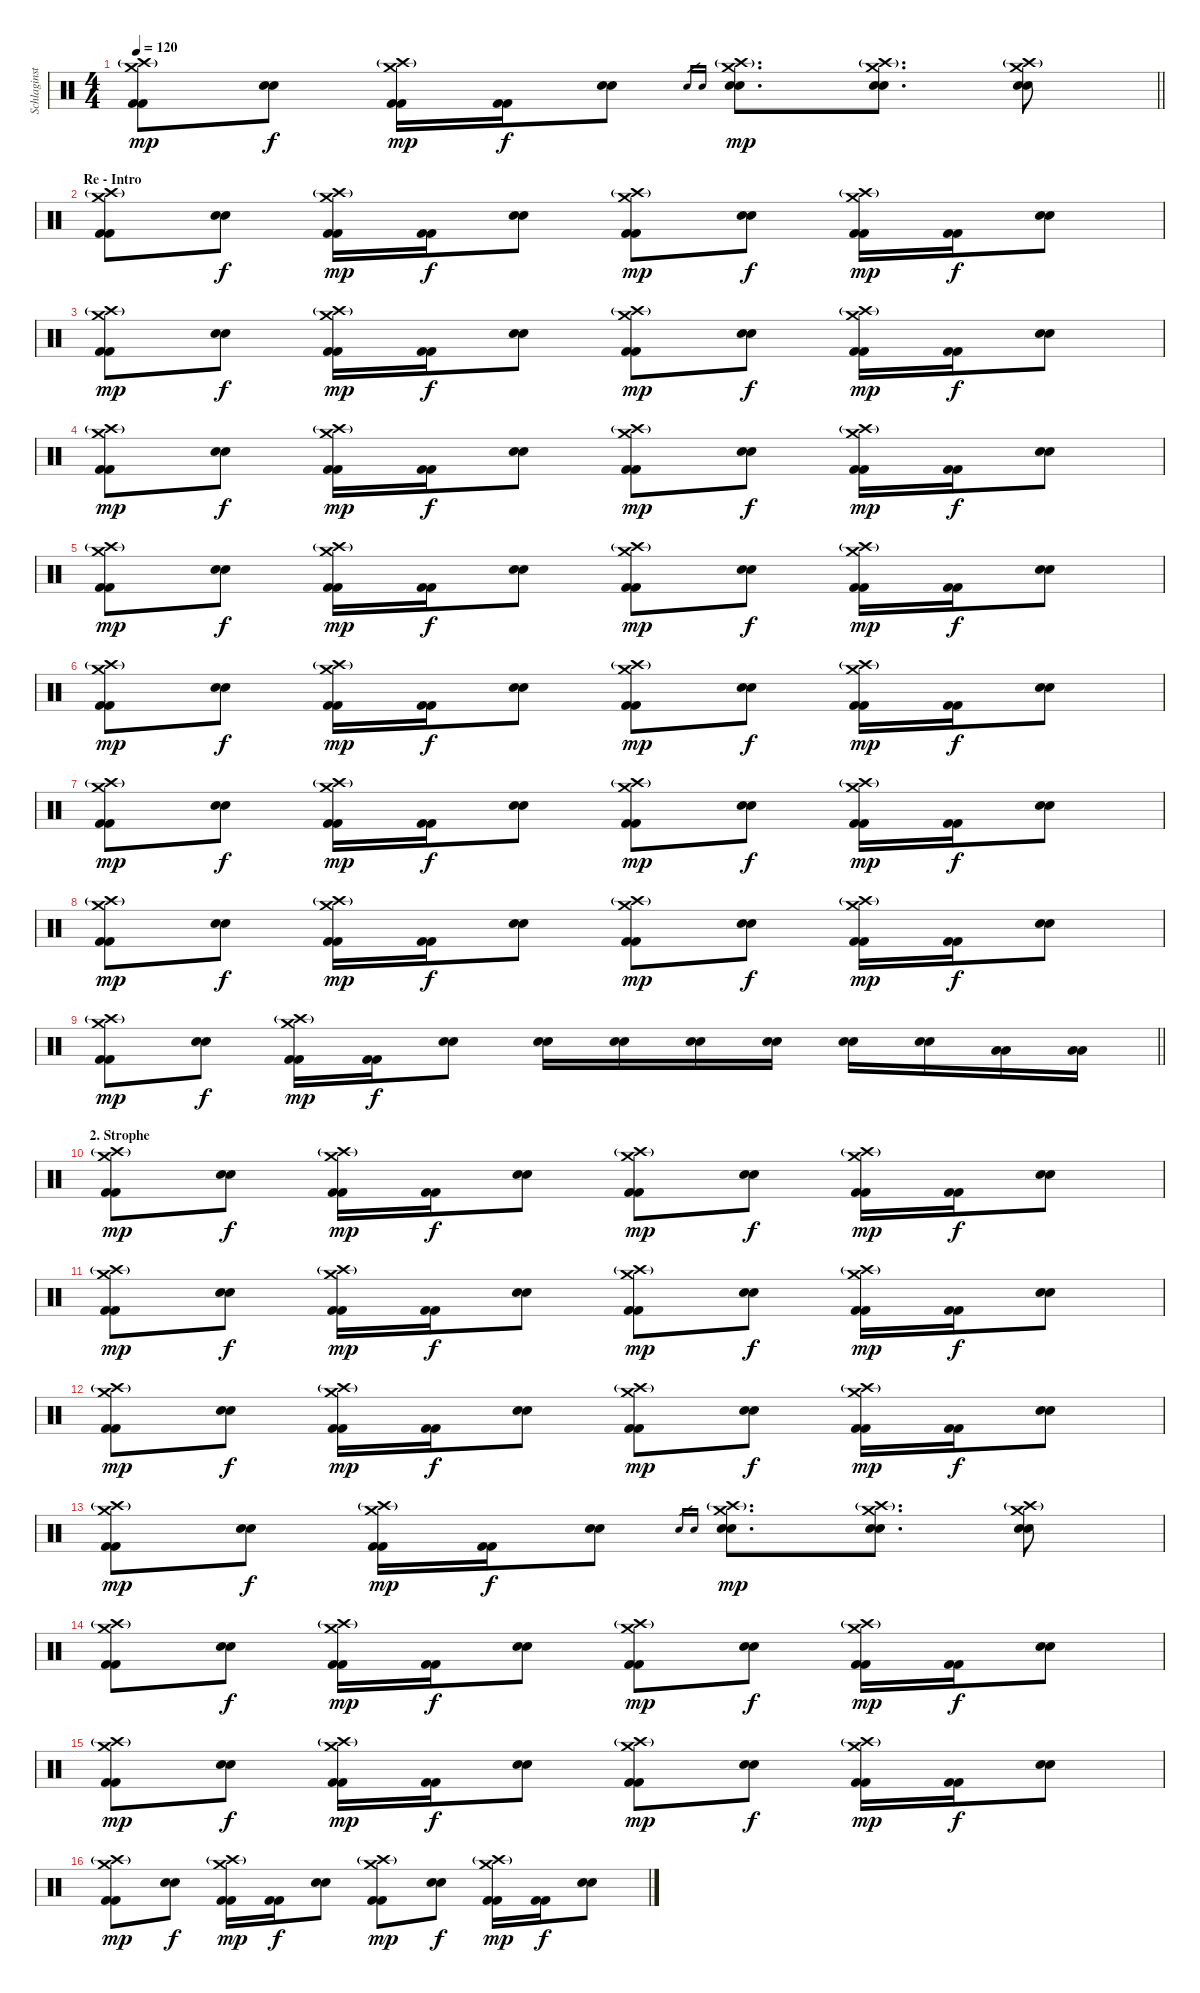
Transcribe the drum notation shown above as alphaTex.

\track ("Schlaginstrumente - Auswahl" "Schlaginst") {instrument percussion}
\staff {score}
\articulation defaults
\ts (4 4)
\tempo 120
\clef neutral
\barLineRight lightlight
\ks c
("Crash high (hit)"{g} "Crash medium (hit)" "Kick (hit) 2" "Kick (hit) 2").8{dy mp} ("Electric Snare (hit)" "Electric Snare (hit)").8{dy f} ("Crash high (hit)"{g} "Crash medium (hit)" "Kick (hit) 2" "Kick (hit) 2").16{dy mp} ("Kick (hit) 2" "Kick (hit) 2").16{dy f} ("Electric Snare (hit)" "Electric Snare (hit)").8 "Electric Snare (hit)".16{gr} "Electric Snare (hit)".16{gr} ("Crash high (hit)"{g} "Crash medium (hit)" "Electric Snare (hit)" "Electric Snare (hit)").8{d dy mp} ("Crash high (hit)"{g} "Crash medium (hit)" "Electric Snare (hit)" "Electric Snare (hit)").8{d} ("Crash high (hit)"{g} "Crash medium (hit)" "Electric Snare (hit)" "Electric Snare (hit)").8 |
\section ("" "Re - Intro")
("Crash high (hit)"{g} "Crash medium (hit)" "Kick (hit) 2" "Kick (hit) 2").8 ("Electric Snare (hit)" "Electric Snare (hit)").8{dy f} ("Crash high (hit)"{g} "Crash medium (hit)" "Kick (hit) 2" "Kick (hit) 2").16{dy mp} ("Kick (hit) 2" "Kick (hit) 2").16{dy f} ("Electric Snare (hit)" "Electric Snare (hit)").8 ("Crash high (hit)"{g} "Crash medium (hit)" "Kick (hit) 2" "Kick (hit) 2").8{dy mp} ("Electric Snare (hit)" "Electric Snare (hit)").8{dy f} ("Crash high (hit)"{g} "Crash medium (hit)" "Kick (hit) 2" "Kick (hit) 2").16{dy mp} ("Kick (hit) 2" "Kick (hit) 2").16{dy f} ("Electric Snare (hit)" "Electric Snare (hit)").8 |
("Crash high (hit)"{g} "Crash medium (hit)" "Kick (hit) 2" "Kick (hit) 2").8{dy mp} ("Electric Snare (hit)" "Electric Snare (hit)").8{dy f} ("Crash high (hit)"{g} "Crash medium (hit)" "Kick (hit) 2" "Kick (hit) 2").16{dy mp} ("Kick (hit) 2" "Kick (hit) 2").16{dy f} ("Electric Snare (hit)" "Electric Snare (hit)").8 ("Crash high (hit)"{g} "Crash medium (hit)" "Kick (hit) 2" "Kick (hit) 2").8{dy mp} ("Electric Snare (hit)" "Electric Snare (hit)").8{dy f} ("Crash high (hit)"{g} "Crash medium (hit)" "Kick (hit) 2" "Kick (hit) 2").16{dy mp} ("Kick (hit) 2" "Kick (hit) 2").16{dy f} ("Electric Snare (hit)" "Electric Snare (hit)").8 |
("Crash high (hit)"{g} "Crash medium (hit)" "Kick (hit) 2" "Kick (hit) 2").8{dy mp} ("Electric Snare (hit)" "Electric Snare (hit)").8{dy f} ("Crash high (hit)"{g} "Crash medium (hit)" "Kick (hit) 2" "Kick (hit) 2").16{dy mp} ("Kick (hit) 2" "Kick (hit) 2").16{dy f} ("Electric Snare (hit)" "Electric Snare (hit)").8 ("Crash high (hit)"{g} "Crash medium (hit)" "Kick (hit) 2" "Kick (hit) 2").8{dy mp} ("Electric Snare (hit)" "Electric Snare (hit)").8{dy f} ("Crash high (hit)"{g} "Crash medium (hit)" "Kick (hit) 2" "Kick (hit) 2").16{dy mp} ("Kick (hit) 2" "Kick (hit) 2").16{dy f} ("Electric Snare (hit)" "Electric Snare (hit)").8 |
("Crash high (hit)"{g} "Crash medium (hit)" "Kick (hit) 2" "Kick (hit) 2").8{dy mp} ("Electric Snare (hit)" "Electric Snare (hit)").8{dy f} ("Crash high (hit)"{g} "Crash medium (hit)" "Kick (hit) 2" "Kick (hit) 2").16{dy mp} ("Kick (hit) 2" "Kick (hit) 2").16{dy f} ("Electric Snare (hit)" "Electric Snare (hit)").8 ("Crash high (hit)"{g} "Crash medium (hit)" "Kick (hit) 2" "Kick (hit) 2").8{dy mp} ("Electric Snare (hit)" "Electric Snare (hit)").8{dy f} ("Crash high (hit)"{g} "Crash medium (hit)" "Kick (hit) 2" "Kick (hit) 2").16{dy mp} ("Kick (hit) 2" "Kick (hit) 2").16{dy f} ("Electric Snare (hit)" "Electric Snare (hit)").8 |
("Crash high (hit)"{g} "Crash medium (hit)" "Kick (hit) 2" "Kick (hit) 2").8{dy mp} ("Electric Snare (hit)" "Electric Snare (hit)").8{dy f} ("Crash high (hit)"{g} "Crash medium (hit)" "Kick (hit) 2" "Kick (hit) 2").16{dy mp} ("Kick (hit) 2" "Kick (hit) 2").16{dy f} ("Electric Snare (hit)" "Electric Snare (hit)").8 ("Crash high (hit)"{g} "Crash medium (hit)" "Kick (hit) 2" "Kick (hit) 2").8{dy mp} ("Electric Snare (hit)" "Electric Snare (hit)").8{dy f} ("Crash high (hit)"{g} "Crash medium (hit)" "Kick (hit) 2" "Kick (hit) 2").16{dy mp} ("Kick (hit) 2" "Kick (hit) 2").16{dy f} ("Electric Snare (hit)" "Electric Snare (hit)").8 |
("Crash high (hit)"{g} "Crash medium (hit)" "Kick (hit) 2" "Kick (hit) 2").8{dy mp} ("Electric Snare (hit)" "Electric Snare (hit)").8{dy f} ("Crash high (hit)"{g} "Crash medium (hit)" "Kick (hit) 2" "Kick (hit) 2").16{dy mp} ("Kick (hit) 2" "Kick (hit) 2").16{dy f} ("Electric Snare (hit)" "Electric Snare (hit)").8 ("Crash high (hit)"{g} "Crash medium (hit)" "Kick (hit) 2" "Kick (hit) 2").8{dy mp} ("Electric Snare (hit)" "Electric Snare (hit)").8{dy f} ("Crash high (hit)"{g} "Crash medium (hit)" "Kick (hit) 2" "Kick (hit) 2").16{dy mp} ("Kick (hit) 2" "Kick (hit) 2").16{dy f} ("Electric Snare (hit)" "Electric Snare (hit)").8 |
("Crash high (hit)"{g} "Crash medium (hit)" "Kick (hit) 2" "Kick (hit) 2").8{dy mp} ("Electric Snare (hit)" "Electric Snare (hit)").8{dy f} ("Crash high (hit)"{g} "Crash medium (hit)" "Kick (hit) 2" "Kick (hit) 2").16{dy mp} ("Kick (hit) 2" "Kick (hit) 2").16{dy f} ("Electric Snare (hit)" "Electric Snare (hit)").8 ("Crash high (hit)"{g} "Crash medium (hit)" "Kick (hit) 2" "Kick (hit) 2").8{dy mp} ("Electric Snare (hit)" "Electric Snare (hit)").8{dy f} ("Crash high (hit)"{g} "Crash medium (hit)" "Kick (hit) 2" "Kick (hit) 2").16{dy mp} ("Kick (hit) 2" "Kick (hit) 2").16{dy f} ("Electric Snare (hit)" "Electric Snare (hit)").8 |
\barLineRight lightlight
("Crash high (hit)"{g} "Crash medium (hit)" "Kick (hit) 2" "Kick (hit) 2").8{dy mp} ("Electric Snare (hit)" "Electric Snare (hit)").8{dy f} ("Crash high (hit)"{g} "Crash medium (hit)" "Kick (hit) 2" "Kick (hit) 2").16{dy mp} ("Kick (hit) 2" "Kick (hit) 2").16{dy f} ("Electric Snare (hit)" "Electric Snare (hit)").8 ("Electric Snare (hit)" "Electric Snare (hit)").16 ("Electric Snare (hit)" "Electric Snare (hit)").16 ("Electric Snare (hit)" "Electric Snare (hit)").16 ("Electric Snare (hit)" "Electric Snare (hit)").16 ("Snare (hit) 2" "Snare (hit) 2").16 ("Snare (hit) 2" "Snare (hit) 2").16 ("Low Tom (hit)" "Low Tom (hit)").16 ("Low Tom (hit)" "Low Tom (hit)").16 |
\section ("" "2. Strophe")
("Crash high (hit)"{g} "Crash medium (hit)" "Kick (hit) 2" "Kick (hit) 2").8{dy mp} ("Electric Snare (hit)" "Electric Snare (hit)").8{dy f} ("Crash high (hit)"{g} "Crash medium (hit)" "Kick (hit) 2" "Kick (hit) 2").16{dy mp} ("Kick (hit) 2" "Kick (hit) 2").16{dy f} ("Electric Snare (hit)" "Electric Snare (hit)").8 ("Crash high (hit)"{g} "Crash medium (hit)" "Kick (hit) 2" "Kick (hit) 2").8{dy mp} ("Electric Snare (hit)" "Electric Snare (hit)").8{dy f} ("Crash high (hit)"{g} "Crash medium (hit)" "Kick (hit) 2" "Kick (hit) 2").16{dy mp} ("Kick (hit) 2" "Kick (hit) 2").16{dy f} ("Electric Snare (hit)" "Electric Snare (hit)").8 |
("Crash high (hit)"{g} "Crash medium (hit)" "Kick (hit) 2" "Kick (hit) 2").8{dy mp} ("Electric Snare (hit)" "Electric Snare (hit)").8{dy f} ("Crash high (hit)"{g} "Crash medium (hit)" "Kick (hit) 2" "Kick (hit) 2").16{dy mp} ("Kick (hit) 2" "Kick (hit) 2").16{dy f} ("Electric Snare (hit)" "Electric Snare (hit)").8 ("Crash high (hit)"{g} "Crash medium (hit)" "Kick (hit) 2" "Kick (hit) 2").8{dy mp} ("Electric Snare (hit)" "Electric Snare (hit)").8{dy f} ("Crash high (hit)"{g} "Crash medium (hit)" "Kick (hit) 2" "Kick (hit) 2").16{dy mp} ("Kick (hit) 2" "Kick (hit) 2").16{dy f} ("Electric Snare (hit)" "Electric Snare (hit)").8 |
("Crash high (hit)"{g} "Crash medium (hit)" "Kick (hit) 2" "Kick (hit) 2").8{dy mp} ("Electric Snare (hit)" "Electric Snare (hit)").8{dy f} ("Crash high (hit)"{g} "Crash medium (hit)" "Kick (hit) 2" "Kick (hit) 2").16{dy mp} ("Kick (hit) 2" "Kick (hit) 2").16{dy f} ("Electric Snare (hit)" "Electric Snare (hit)").8 ("Crash high (hit)"{g} "Crash medium (hit)" "Kick (hit) 2" "Kick (hit) 2").8{dy mp} ("Electric Snare (hit)" "Electric Snare (hit)").8{dy f} ("Crash high (hit)"{g} "Crash medium (hit)" "Kick (hit) 2" "Kick (hit) 2").16{dy mp} ("Kick (hit) 2" "Kick (hit) 2").16{dy f} ("Electric Snare (hit)" "Electric Snare (hit)").8 |
("Crash high (hit)"{g} "Crash medium (hit)" "Kick (hit) 2" "Kick (hit) 2").8{dy mp} ("Electric Snare (hit)" "Electric Snare (hit)").8{dy f} ("Crash high (hit)"{g} "Crash medium (hit)" "Kick (hit) 2" "Kick (hit) 2").16{dy mp} ("Kick (hit) 2" "Kick (hit) 2").16{dy f} ("Electric Snare (hit)" "Electric Snare (hit)").8 "Electric Snare (hit)".16{gr} "Electric Snare (hit)".16{gr} ("Crash high (hit)"{g} "Crash medium (hit)" "Electric Snare (hit)" "Electric Snare (hit)").8{d dy mp} ("Crash high (hit)"{g} "Crash medium (hit)" "Electric Snare (hit)" "Electric Snare (hit)").8{d} ("Crash high (hit)"{g} "Crash medium (hit)" "Electric Snare (hit)" "Electric Snare (hit)").8 |
("Crash high (hit)"{g} "Crash medium (hit)" "Kick (hit) 2" "Kick (hit) 2").8 ("Electric Snare (hit)" "Electric Snare (hit)").8{dy f} ("Crash high (hit)"{g} "Crash medium (hit)" "Kick (hit) 2" "Kick (hit) 2").16{dy mp} ("Kick (hit) 2" "Kick (hit) 2").16{dy f} ("Electric Snare (hit)" "Electric Snare (hit)").8 ("Crash high (hit)"{g} "Crash medium (hit)" "Kick (hit) 2" "Kick (hit) 2").8{dy mp} ("Electric Snare (hit)" "Electric Snare (hit)").8{dy f} ("Crash high (hit)"{g} "Crash medium (hit)" "Kick (hit) 2" "Kick (hit) 2").16{dy mp} ("Kick (hit) 2" "Kick (hit) 2").16{dy f} ("Electric Snare (hit)" "Electric Snare (hit)").8 |
("Crash high (hit)"{g} "Crash medium (hit)" "Kick (hit) 2" "Kick (hit) 2").8{dy mp} ("Electric Snare (hit)" "Electric Snare (hit)").8{dy f} ("Crash high (hit)"{g} "Crash medium (hit)" "Kick (hit) 2" "Kick (hit) 2").16{dy mp} ("Kick (hit) 2" "Kick (hit) 2").16{dy f} ("Electric Snare (hit)" "Electric Snare (hit)").8 ("Crash high (hit)"{g} "Crash medium (hit)" "Kick (hit) 2" "Kick (hit) 2").8{dy mp} ("Electric Snare (hit)" "Electric Snare (hit)").8{dy f} ("Crash high (hit)"{g} "Crash medium (hit)" "Kick (hit) 2" "Kick (hit) 2").16{dy mp} ("Kick (hit) 2" "Kick (hit) 2").16{dy f} ("Electric Snare (hit)" "Electric Snare (hit)").8 |
("Crash high (hit)"{g} "Crash medium (hit)" "Kick (hit) 2" "Kick (hit) 2").8{dy mp} ("Electric Snare (hit)" "Electric Snare (hit)").8{dy f} ("Crash high (hit)"{g} "Crash medium (hit)" "Kick (hit) 2" "Kick (hit) 2").16{dy mp} ("Kick (hit) 2" "Kick (hit) 2").16{dy f} ("Electric Snare (hit)" "Electric Snare (hit)").8 ("Crash high (hit)"{g} "Crash medium (hit)" "Kick (hit) 2" "Kick (hit) 2").8{dy mp} ("Electric Snare (hit)" "Electric Snare (hit)").8{dy f} ("Crash high (hit)"{g} "Crash medium (hit)" "Kick (hit) 2" "Kick (hit) 2").16{dy mp} ("Kick (hit) 2" "Kick (hit) 2").16{dy f} ("Electric Snare (hit)" "Electric Snare (hit)").8
